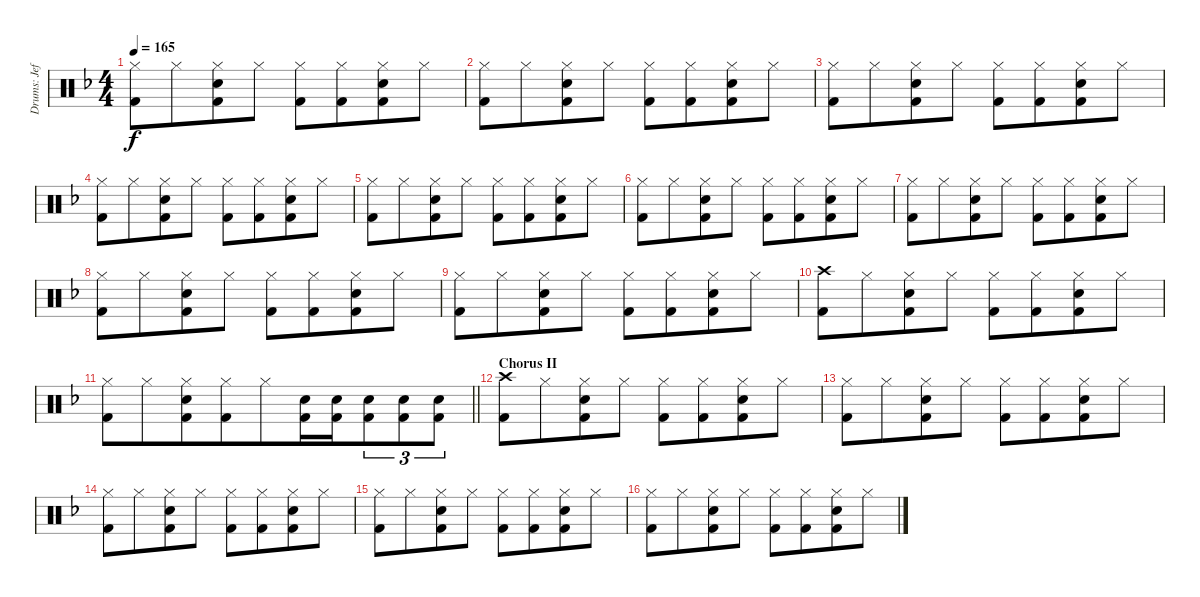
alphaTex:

\track ("Drums: Jeff" "Drums: Jef") {instrument percussion}
\staff {score}
\articulation defaults
\ts (4 4)
\tempo 165
\clef neutral
\ks f
("Hi-Hat (closed)" "Kick (hit) 2").8{dy f} "Hi-Hat (closed)".8{beam merge} ("Hi-Hat (closed)" "Snare (hit) 2" "Kick (hit) 2").8 "Hi-Hat (closed)".8{beam split} ("Hi-Hat (closed)" "Kick (hit) 2").8 ("Hi-Hat (closed)" "Kick (hit) 2").8{beam merge} ("Hi-Hat (closed)" "Snare (hit) 2" "Kick (hit) 2").8 "Hi-Hat (closed)".8 |
("Hi-Hat (closed)" "Kick (hit) 2").8 "Hi-Hat (closed)".8{beam merge} ("Hi-Hat (closed)" "Snare (hit) 2" "Kick (hit) 2").8 "Hi-Hat (closed)".8{beam split} ("Hi-Hat (closed)" "Kick (hit) 2").8 ("Hi-Hat (closed)" "Kick (hit) 2").8{beam merge} ("Hi-Hat (closed)" "Snare (hit) 2" "Kick (hit) 2").8 "Hi-Hat (closed)".8 |
("Hi-Hat (closed)" "Kick (hit) 2").8 "Hi-Hat (closed)".8{beam merge} ("Hi-Hat (closed)" "Snare (hit) 2" "Kick (hit) 2").8 "Hi-Hat (closed)".8{beam split} ("Hi-Hat (closed)" "Kick (hit) 2").8 ("Hi-Hat (closed)" "Kick (hit) 2").8{beam merge} ("Hi-Hat (closed)" "Snare (hit) 2" "Kick (hit) 2").8 "Hi-Hat (closed)".8 |
("Hi-Hat (closed)" "Kick (hit) 2").8 "Hi-Hat (closed)".8{beam merge} ("Hi-Hat (closed)" "Snare (hit) 2" "Kick (hit) 2").8 "Hi-Hat (closed)".8{beam split} ("Hi-Hat (closed)" "Kick (hit) 2").8 ("Hi-Hat (closed)" "Kick (hit) 2").8{beam merge} ("Hi-Hat (closed)" "Snare (hit) 2" "Kick (hit) 2").8 "Hi-Hat (closed)".8 |
("Hi-Hat (closed)" "Kick (hit) 2").8 "Hi-Hat (closed)".8{beam merge} ("Hi-Hat (closed)" "Snare (hit) 2" "Kick (hit) 2").8 "Hi-Hat (closed)".8{beam split} ("Hi-Hat (closed)" "Kick (hit) 2").8 ("Hi-Hat (closed)" "Kick (hit) 2").8{beam merge} ("Hi-Hat (closed)" "Snare (hit) 2" "Kick (hit) 2").8 "Hi-Hat (closed)".8 |
("Hi-Hat (closed)" "Kick (hit) 2").8 "Hi-Hat (closed)".8{beam merge} ("Hi-Hat (closed)" "Snare (hit) 2" "Kick (hit) 2").8 "Hi-Hat (closed)".8{beam split} ("Hi-Hat (closed)" "Kick (hit) 2").8 ("Hi-Hat (closed)" "Kick (hit) 2").8{beam merge} ("Hi-Hat (closed)" "Snare (hit) 2" "Kick (hit) 2").8 "Hi-Hat (closed)".8 |
("Hi-Hat (closed)" "Kick (hit) 2").8 "Hi-Hat (closed)".8{beam merge} ("Hi-Hat (closed)" "Snare (hit) 2" "Kick (hit) 2").8 "Hi-Hat (closed)".8{beam split} ("Hi-Hat (closed)" "Kick (hit) 2").8 ("Hi-Hat (closed)" "Kick (hit) 2").8{beam merge} ("Hi-Hat (closed)" "Snare (hit) 2" "Kick (hit) 2").8 "Hi-Hat (closed)".8 |
("Hi-Hat (closed)" "Kick (hit) 2").8 "Hi-Hat (closed)".8{beam merge} ("Hi-Hat (closed)" "Snare (hit) 2" "Kick (hit) 2").8 "Hi-Hat (closed)".8{beam split} ("Hi-Hat (closed)" "Kick (hit) 2").8 ("Hi-Hat (closed)" "Kick (hit) 2").8{beam merge} ("Hi-Hat (closed)" "Snare (hit) 2" "Kick (hit) 2").8 "Hi-Hat (closed)".8 |
("Hi-Hat (closed)" "Kick (hit) 2").8 "Hi-Hat (closed)".8{beam merge} ("Hi-Hat (closed)" "Snare (hit) 2" "Kick (hit) 2").8 "Hi-Hat (closed)".8{beam split} ("Hi-Hat (closed)" "Kick (hit) 2").8 ("Hi-Hat (closed)" "Kick (hit) 2").8{beam merge} ("Hi-Hat (closed)" "Snare (hit) 2" "Kick (hit) 2").8 "Hi-Hat (closed)".8 |
("Crash high (hit)" "Kick (hit) 2").8 "Hi-Hat (closed)".8{beam merge} ("Hi-Hat (closed)" "Snare (hit) 2" "Kick (hit) 2").8 "Hi-Hat (closed)".8{beam split} ("Hi-Hat (closed)" "Kick (hit) 2").8 ("Hi-Hat (closed)" "Kick (hit) 2").8{beam merge} ("Hi-Hat (closed)" "Snare (hit) 2" "Kick (hit) 2").8 "Hi-Hat (closed)".8 |
\barLineRight lightlight
("Hi-Hat (closed)" "Kick (hit) 2").8 "Hi-Hat (closed)".8{beam merge} ("Hi-Hat (closed)" "Snare (hit) 2" "Kick (hit) 2").8{beam merge} ("Hi-Hat (closed)" "Kick (hit) 2").8{beam merge} "Hi-Hat (closed)".8{beam merge} ("Snare (hit) 2" "Kick (hit) 2").16{beam merge} ("Snare (hit) 2" "Kick (hit) 2").16{beam merge} ("Snare (hit) 2" "Kick (hit) 2").8{tu (3 2) beam merge} ("Snare (hit) 2" "Kick (hit) 2").8{tu (3 2) beam merge} ("Snare (hit) 2" "Kick (hit) 2").8{tu (3 2)} |
\section ("" "Chorus II")
("Crash high (hit)" "Kick (hit) 2").8 "Hi-Hat (closed)".8{beam merge} ("Hi-Hat (closed)" "Snare (hit) 2" "Kick (hit) 2").8 "Hi-Hat (closed)".8{beam split} ("Hi-Hat (closed)" "Kick (hit) 2").8 ("Hi-Hat (closed)" "Kick (hit) 2").8{beam merge} ("Hi-Hat (closed)" "Snare (hit) 2" "Kick (hit) 2").8 "Hi-Hat (closed)".8 |
("Hi-Hat (closed)" "Kick (hit) 2").8 "Hi-Hat (closed)".8{beam merge} ("Hi-Hat (closed)" "Snare (hit) 2" "Kick (hit) 2").8 "Hi-Hat (closed)".8{beam split} ("Hi-Hat (closed)" "Kick (hit) 2").8 ("Hi-Hat (closed)" "Kick (hit) 2").8{beam merge} ("Hi-Hat (closed)" "Snare (hit) 2" "Kick (hit) 2").8 "Hi-Hat (closed)".8 |
("Hi-Hat (closed)" "Kick (hit) 2").8 "Hi-Hat (closed)".8{beam merge} ("Hi-Hat (closed)" "Snare (hit) 2" "Kick (hit) 2").8 "Hi-Hat (closed)".8{beam split} ("Hi-Hat (closed)" "Kick (hit) 2").8 ("Hi-Hat (closed)" "Kick (hit) 2").8{beam merge} ("Hi-Hat (closed)" "Snare (hit) 2" "Kick (hit) 2").8 "Hi-Hat (closed)".8 |
("Hi-Hat (closed)" "Kick (hit) 2").8 "Hi-Hat (closed)".8{beam merge} ("Hi-Hat (closed)" "Snare (hit) 2" "Kick (hit) 2").8 "Hi-Hat (closed)".8{beam split} ("Hi-Hat (closed)" "Kick (hit) 2").8 ("Hi-Hat (closed)" "Kick (hit) 2").8{beam merge} ("Hi-Hat (closed)" "Snare (hit) 2" "Kick (hit) 2").8 "Hi-Hat (closed)".8 |
("Hi-Hat (closed)" "Kick (hit) 2").8 "Hi-Hat (closed)".8{beam merge} ("Hi-Hat (closed)" "Snare (hit) 2" "Kick (hit) 2").8 "Hi-Hat (closed)".8{beam split} ("Hi-Hat (closed)" "Kick (hit) 2").8 ("Hi-Hat (closed)" "Kick (hit) 2").8{beam merge} ("Hi-Hat (closed)" "Snare (hit) 2" "Kick (hit) 2").8 "Hi-Hat (closed)".8
